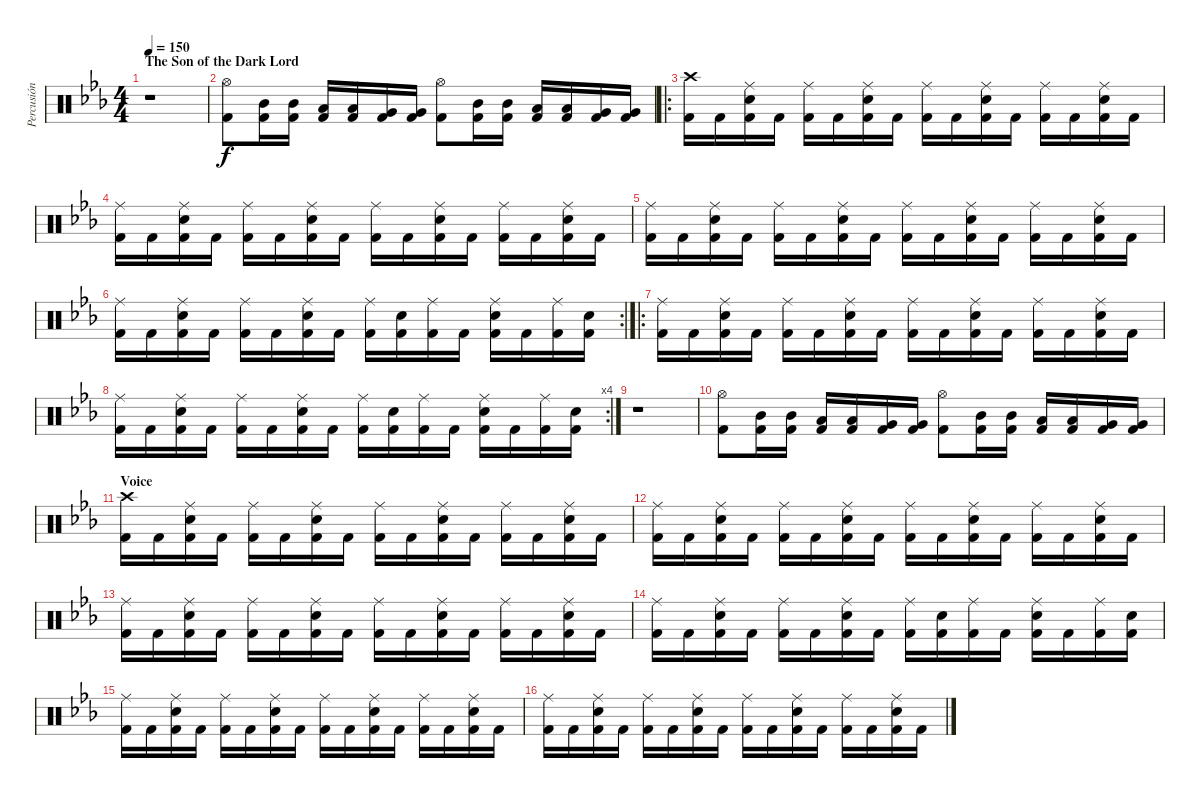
\track ("Percusión" "Percusión") {instrument percussion}
\staff {score}
\articulation defaults
\ts (4 4)
\section ("" "The Son of the Dark Lord")
\tempo 150
\clef neutral
\ks cminor
r.1{dy f} |
("Hi-Hat (open)" "Kick (hit) 2").8 ("Mid Tom (hit)" "Kick (hit) 2").16 ("Mid Tom (hit)" "Kick (hit) 2").16 ("Low Tom (hit)" "Kick (hit) 2").16 ("Low Tom (hit)" "Kick (hit) 2").16 ("Very Low Tom (hit)" "Kick (hit) 2").16 ("Very Low Tom (hit)" "Kick (hit) 2").16 ("Hi-Hat (open)" "Kick (hit) 2").8 ("Mid Tom (hit)" "Kick (hit) 2").16 ("Mid Tom (hit)" "Kick (hit) 2").16 ("Low Tom (hit)" "Kick (hit) 2").16 ("Low Tom (hit)" "Kick (hit) 2").16 ("Very Low Tom (hit)" "Kick (hit) 2").16 ("Very Low Tom (hit)" "Kick (hit) 2").16 |
\ro
("Crash high (hit)" "Kick (hit) 2").16 "Kick (hit) 2".16 ("Ride (middle)" "Electric Snare (hit)" "Kick (hit) 2").16 "Kick (hit) 2".16 ("Ride (middle)" "Kick (hit) 2").16 "Kick (hit) 2".16 ("Ride (middle)" "Electric Snare (hit)" "Kick (hit) 2").16 "Kick (hit) 2".16 ("Ride (middle)" "Kick (hit) 2").16 "Kick (hit) 2".16 ("Ride (middle)" "Electric Snare (hit)" "Kick (hit) 2").16 "Kick (hit) 2".16 ("Ride (middle)" "Kick (hit) 2").16 "Kick (hit) 2".16 ("Ride (middle)" "Electric Snare (hit)" "Kick (hit) 2").16 "Kick (hit) 2".16 |
("Ride (middle)" "Kick (hit) 2").16 "Kick (hit) 2".16 ("Ride (middle)" "Electric Snare (hit)" "Kick (hit) 2").16 "Kick (hit) 2".16 ("Ride (middle)" "Kick (hit) 2").16 "Kick (hit) 2".16 ("Ride (middle)" "Electric Snare (hit)" "Kick (hit) 2").16 "Kick (hit) 2".16 ("Ride (middle)" "Kick (hit) 2").16 "Kick (hit) 2".16 ("Ride (middle)" "Electric Snare (hit)" "Kick (hit) 2").16 "Kick (hit) 2".16 ("Ride (middle)" "Kick (hit) 2").16 "Kick (hit) 2".16 ("Ride (middle)" "Electric Snare (hit)" "Kick (hit) 2").16 "Kick (hit) 2".16 |
("Ride (middle)" "Kick (hit) 2").16 "Kick (hit) 2".16 ("Ride (middle)" "Electric Snare (hit)" "Kick (hit) 2").16 "Kick (hit) 2".16 ("Ride (middle)" "Kick (hit) 2").16 "Kick (hit) 2".16 ("Ride (middle)" "Electric Snare (hit)" "Kick (hit) 2").16 "Kick (hit) 2".16 ("Ride (middle)" "Kick (hit) 2").16 "Kick (hit) 2".16 ("Ride (middle)" "Electric Snare (hit)" "Kick (hit) 2").16 "Kick (hit) 2".16 ("Ride (middle)" "Kick (hit) 2").16 "Kick (hit) 2".16 ("Ride (middle)" "Electric Snare (hit)" "Kick (hit) 2").16 "Kick (hit) 2".16 |
\rc 2
("Ride (middle)" "Kick (hit) 2").16 "Kick (hit) 2".16 ("Ride (middle)" "Electric Snare (hit)" "Kick (hit) 2").16 "Kick (hit) 2".16 ("Ride (middle)" "Kick (hit) 2").16 "Kick (hit) 2".16 ("Ride (middle)" "Electric Snare (hit)" "Kick (hit) 2").16 "Kick (hit) 2".16 ("Ride (middle)" "Kick (hit) 2").16 ("Electric Snare (hit)" "Kick (hit) 2").16 ("Ride (middle)" "Kick (hit) 2").16 "Kick (hit) 2".16 ("Ride (middle)" "Electric Snare (hit)" "Kick (hit) 2").16 "Kick (hit) 2".16 ("Ride (middle)" "Kick (hit) 2").16 ("Electric Snare (hit)" "Kick (hit) 2").16 |
\ro
("Ride (middle)" "Kick (hit) 2").16 "Kick (hit) 2".16 ("Ride (middle)" "Electric Snare (hit)" "Kick (hit) 2").16 "Kick (hit) 2".16 ("Ride (middle)" "Kick (hit) 2").16 "Kick (hit) 2".16 ("Ride (middle)" "Electric Snare (hit)" "Kick (hit) 2").16 "Kick (hit) 2".16 ("Ride (middle)" "Kick (hit) 2").16 "Kick (hit) 2".16 ("Ride (middle)" "Electric Snare (hit)" "Kick (hit) 2").16 "Kick (hit) 2".16 ("Ride (middle)" "Kick (hit) 2").16 "Kick (hit) 2".16 ("Ride (middle)" "Electric Snare (hit)" "Kick (hit) 2").16 "Kick (hit) 2".16 |
\rc 4
("Ride (middle)" "Kick (hit) 2").16 "Kick (hit) 2".16 ("Ride (middle)" "Electric Snare (hit)" "Kick (hit) 2").16 "Kick (hit) 2".16 ("Ride (middle)" "Kick (hit) 2").16 "Kick (hit) 2".16 ("Ride (middle)" "Electric Snare (hit)" "Kick (hit) 2").16 "Kick (hit) 2".16 ("Ride (middle)" "Kick (hit) 2").16 ("Electric Snare (hit)" "Kick (hit) 2").16 ("Ride (middle)" "Kick (hit) 2").16 "Kick (hit) 2".16 ("Ride (middle)" "Electric Snare (hit)" "Kick (hit) 2").16 "Kick (hit) 2".16 ("Ride (middle)" "Kick (hit) 2").16 ("Electric Snare (hit)" "Kick (hit) 2").16 |
r.1 |
("Hi-Hat (open)" "Kick (hit) 2").8 ("Mid Tom (hit)" "Kick (hit) 2").16 ("Mid Tom (hit)" "Kick (hit) 2").16 ("Low Tom (hit)" "Kick (hit) 2").16 ("Low Tom (hit)" "Kick (hit) 2").16 ("Very Low Tom (hit)" "Kick (hit) 2").16 ("Very Low Tom (hit)" "Kick (hit) 2").16 ("Hi-Hat (open)" "Kick (hit) 2").8 ("Mid Tom (hit)" "Kick (hit) 2").16 ("Mid Tom (hit)" "Kick (hit) 2").16 ("Low Tom (hit)" "Kick (hit) 2").16 ("Low Tom (hit)" "Kick (hit) 2").16 ("Very Low Tom (hit)" "Kick (hit) 2").16 ("Very Low Tom (hit)" "Kick (hit) 2").16 |
\section ("" "Voice")
("Crash high (hit)" "Kick (hit) 2").16 "Kick (hit) 2".16 ("Ride (middle)" "Electric Snare (hit)" "Kick (hit) 2").16 "Kick (hit) 2".16 ("Ride (middle)" "Kick (hit) 2").16 "Kick (hit) 2".16 ("Ride (middle)" "Electric Snare (hit)" "Kick (hit) 2").16 "Kick (hit) 2".16 ("Ride (middle)" "Kick (hit) 2").16 "Kick (hit) 2".16 ("Ride (middle)" "Electric Snare (hit)" "Kick (hit) 2").16 "Kick (hit) 2".16 ("Ride (middle)" "Kick (hit) 2").16 "Kick (hit) 2".16 ("Ride (middle)" "Electric Snare (hit)" "Kick (hit) 2").16 "Kick (hit) 2".16 |
("Ride (middle)" "Kick (hit) 2").16 "Kick (hit) 2".16 ("Ride (middle)" "Electric Snare (hit)" "Kick (hit) 2").16 "Kick (hit) 2".16 ("Ride (middle)" "Kick (hit) 2").16 "Kick (hit) 2".16 ("Ride (middle)" "Electric Snare (hit)" "Kick (hit) 2").16 "Kick (hit) 2".16 ("Ride (middle)" "Kick (hit) 2").16 "Kick (hit) 2".16 ("Ride (middle)" "Electric Snare (hit)" "Kick (hit) 2").16 "Kick (hit) 2".16 ("Ride (middle)" "Kick (hit) 2").16 "Kick (hit) 2".16 ("Ride (middle)" "Electric Snare (hit)" "Kick (hit) 2").16 "Kick (hit) 2".16 |
("Ride (middle)" "Kick (hit) 2").16 "Kick (hit) 2".16 ("Ride (middle)" "Electric Snare (hit)" "Kick (hit) 2").16 "Kick (hit) 2".16 ("Ride (middle)" "Kick (hit) 2").16 "Kick (hit) 2".16 ("Ride (middle)" "Electric Snare (hit)" "Kick (hit) 2").16 "Kick (hit) 2".16 ("Ride (middle)" "Kick (hit) 2").16 "Kick (hit) 2".16 ("Ride (middle)" "Electric Snare (hit)" "Kick (hit) 2").16 "Kick (hit) 2".16 ("Ride (middle)" "Kick (hit) 2").16 "Kick (hit) 2".16 ("Ride (middle)" "Electric Snare (hit)" "Kick (hit) 2").16 "Kick (hit) 2".16 |
("Ride (middle)" "Kick (hit) 2").16 "Kick (hit) 2".16 ("Ride (middle)" "Electric Snare (hit)" "Kick (hit) 2").16 "Kick (hit) 2".16 ("Ride (middle)" "Kick (hit) 2").16 "Kick (hit) 2".16 ("Ride (middle)" "Electric Snare (hit)" "Kick (hit) 2").16 "Kick (hit) 2".16 ("Ride (middle)" "Kick (hit) 2").16 ("Electric Snare (hit)" "Kick (hit) 2").16 ("Ride (middle)" "Kick (hit) 2").16 "Kick (hit) 2".16 ("Ride (middle)" "Electric Snare (hit)" "Kick (hit) 2").16 "Kick (hit) 2".16 ("Ride (middle)" "Kick (hit) 2").16 ("Electric Snare (hit)" "Kick (hit) 2").16 |
("Ride (middle)" "Kick (hit) 2").16 "Kick (hit) 2".16 ("Ride (middle)" "Electric Snare (hit)" "Kick (hit) 2").16 "Kick (hit) 2".16 ("Ride (middle)" "Kick (hit) 2").16 "Kick (hit) 2".16 ("Ride (middle)" "Electric Snare (hit)" "Kick (hit) 2").16 "Kick (hit) 2".16 ("Ride (middle)" "Kick (hit) 2").16 "Kick (hit) 2".16 ("Ride (middle)" "Electric Snare (hit)" "Kick (hit) 2").16 "Kick (hit) 2".16 ("Ride (middle)" "Kick (hit) 2").16 "Kick (hit) 2".16 ("Ride (middle)" "Electric Snare (hit)" "Kick (hit) 2").16 "Kick (hit) 2".16 |
("Ride (middle)" "Kick (hit) 2").16 "Kick (hit) 2".16 ("Ride (middle)" "Electric Snare (hit)" "Kick (hit) 2").16 "Kick (hit) 2".16 ("Ride (middle)" "Kick (hit) 2").16 "Kick (hit) 2".16 ("Ride (middle)" "Electric Snare (hit)" "Kick (hit) 2").16 "Kick (hit) 2".16 ("Ride (middle)" "Kick (hit) 2").16 "Kick (hit) 2".16 ("Ride (middle)" "Electric Snare (hit)" "Kick (hit) 2").16 "Kick (hit) 2".16 ("Ride (middle)" "Kick (hit) 2").16 "Kick (hit) 2".16 ("Ride (middle)" "Electric Snare (hit)" "Kick (hit) 2").16 "Kick (hit) 2".16
